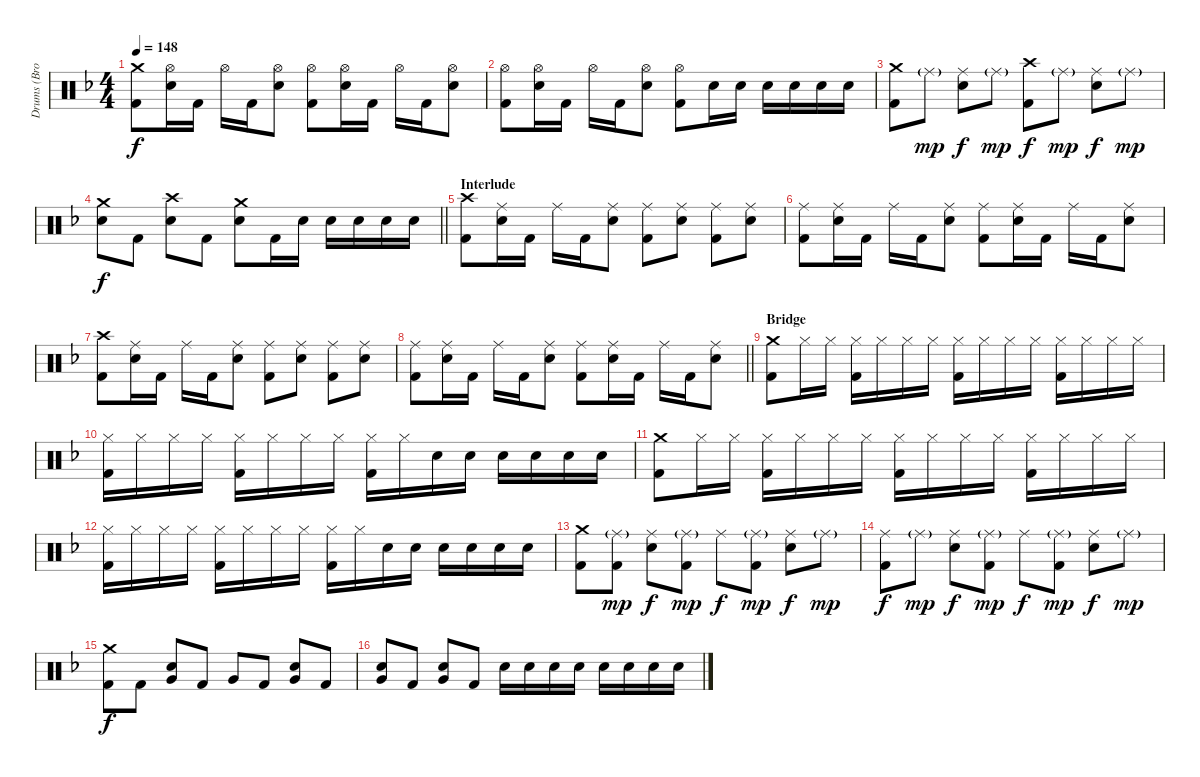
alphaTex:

\track ("Drums (Brooks Wackerman)" "Drums (Bro") {instrument percussion}
\staff {score}
\articulation defaults
\ts (4 4)
\tempo 148
\clef neutral
\ks f
("Crash medium (hit)" "Kick (hit) 2").8{dy f} ("Hi-Hat (open)" "Snare (hit) 2").16 "Kick (hit) 2".16 "Hi-Hat (open)".16 "Kick (hit) 2".16 ("Hi-Hat (open)" "Snare (hit) 2").8 ("Hi-Hat (open)" "Kick (hit) 2").8 ("Hi-Hat (open)" "Snare (hit) 2").16 "Kick (hit) 2".16 "Hi-Hat (open)".16 "Kick (hit) 2".16 ("Hi-Hat (open)" "Snare (hit) 2").8 |
("Hi-Hat (open)" "Kick (hit) 2").8 ("Hi-Hat (open)" "Snare (hit) 2").16 "Kick (hit) 2".16 "Hi-Hat (open)".16 "Kick (hit) 2".16 ("Hi-Hat (open)" "Snare (hit) 2").8 ("Hi-Hat (open)" "Kick (hit) 2").8 "Snare (hit) 2".16 "Snare (hit) 2".16 "Snare (hit) 2".16 "Snare (hit) 2".16 "Snare (hit) 2".16 "Snare (hit) 2".16 |
("Crash medium (hit)" "Kick (hit) 2").8 "Ride (middle)"{g}.8{dy mp} ("Ride (middle)" "Snare (hit) 2").8{dy f} "Ride (middle)"{g}.8{dy mp} ("Crash high (hit)" "Kick (hit) 2").8{dy f} "Ride (middle)"{g}.8{dy mp} ("Ride (middle)" "Snare (hit) 2").8{dy f} "Ride (middle)"{g}.8{dy mp} |
\barLineRight lightlight
("Crash medium (hit)" "Snare (hit) 2").8{dy f} "Kick (hit) 2".8 ("Crash high (hit)" "Snare (hit) 2").8 "Kick (hit) 2".8 ("Crash medium (hit)" "Snare (hit) 2").8 "Kick (hit) 2".16 "Snare (hit) 2".16 "Snare (hit) 2".16 "Snare (hit) 2".16 "Snare (hit) 2".16 "Snare (hit) 2".16 |
\section ("" "Interlude")
("Crash high (hit)" "Kick (hit) 2").8 ("Ride (middle)" "Snare (hit) 2").16 "Kick (hit) 2".16 "Ride (middle)".16 "Kick (hit) 2".16 ("Ride (middle)" "Snare (hit) 2").8 ("Ride (middle)" "Kick (hit) 2").8 ("Ride (middle)" "Snare (hit) 2").8 ("Ride (middle)" "Kick (hit) 2").8 ("Ride (middle)" "Snare (hit) 2").8 |
("Ride (middle)" "Kick (hit) 2").8 ("Ride (middle)" "Snare (hit) 2").16 "Kick (hit) 2".16 "Ride (middle)".16 "Kick (hit) 2".16 ("Ride (middle)" "Snare (hit) 2").8 ("Ride (middle)" "Kick (hit) 2").8 ("Ride (middle)" "Snare (hit) 2").16 "Kick (hit) 2".16 "Ride (middle)".16 "Kick (hit) 2".16 ("Ride (middle)" "Snare (hit) 2").8 |
("Crash high (hit)" "Kick (hit) 2").8 ("Ride (middle)" "Snare (hit) 2").16 "Kick (hit) 2".16 "Ride (middle)".16 "Kick (hit) 2".16 ("Ride (middle)" "Snare (hit) 2").8 ("Ride (middle)" "Kick (hit) 2").8 ("Ride (middle)" "Snare (hit) 2").8 ("Ride (middle)" "Kick (hit) 2").8 ("Ride (middle)" "Snare (hit) 2").8 |
\barLineRight lightlight
("Ride (middle)" "Kick (hit) 2").8 ("Ride (middle)" "Snare (hit) 2").16 "Kick (hit) 2".16 "Ride (middle)".16 "Kick (hit) 2".16 ("Ride (middle)" "Snare (hit) 2").8 ("Ride (middle)" "Kick (hit) 2").8 ("Ride (middle)" "Snare (hit) 2").16 "Kick (hit) 2".16 "Ride (middle)".16 "Kick (hit) 2".16 ("Ride (middle)" "Snare (hit) 2").8 |
\section ("" "Bridge")
("Crash medium (hit)" "Kick (hit) 2").8 "Hi-Hat (closed)".16 "Hi-Hat (closed)".16 ("Hi-Hat (closed)" "Kick (hit) 2").16 "Hi-Hat (closed)".16 "Hi-Hat (closed)".16 "Hi-Hat (closed)".16 ("Hi-Hat (closed)" "Kick (hit) 2").16 "Hi-Hat (closed)".16 "Hi-Hat (closed)".16 "Hi-Hat (closed)".16 ("Hi-Hat (closed)" "Kick (hit) 2").16 "Hi-Hat (closed)".16 "Hi-Hat (closed)".16 "Hi-Hat (closed)".16 |
("Hi-Hat (closed)" "Kick (hit) 2").16 "Hi-Hat (closed)".16 "Hi-Hat (closed)".16 "Hi-Hat (closed)".16 ("Hi-Hat (closed)" "Kick (hit) 2").16 "Hi-Hat (closed)".16 "Hi-Hat (closed)".16 "Hi-Hat (closed)".16 ("Hi-Hat (closed)" "Kick (hit) 2").16 "Hi-Hat (closed)".16 "Snare (hit) 2".16 "Snare (hit) 2".16 "Snare (hit) 2".16 "Snare (hit) 2".16 "Snare (hit) 2".16 "Snare (hit) 2".16 |
("Crash medium (hit)" "Kick (hit) 2").8 "Hi-Hat (closed)".16 "Hi-Hat (closed)".16 ("Hi-Hat (closed)" "Kick (hit) 2").16 "Hi-Hat (closed)".16 "Hi-Hat (closed)".16 "Hi-Hat (closed)".16 ("Hi-Hat (closed)" "Kick (hit) 2").16 "Hi-Hat (closed)".16 "Hi-Hat (closed)".16 "Hi-Hat (closed)".16 ("Hi-Hat (closed)" "Kick (hit) 2").16 "Hi-Hat (closed)".16 "Hi-Hat (closed)".16 "Hi-Hat (closed)".16 |
("Hi-Hat (closed)" "Kick (hit) 2").16 "Hi-Hat (closed)".16 "Hi-Hat (closed)".16 "Hi-Hat (closed)".16 ("Hi-Hat (closed)" "Kick (hit) 2").16 "Hi-Hat (closed)".16 "Hi-Hat (closed)".16 "Hi-Hat (closed)".16 ("Hi-Hat (closed)" "Kick (hit) 2").16 "Hi-Hat (closed)".16 "Snare (hit) 2".16 "Snare (hit) 2".16 "Snare (hit) 2".16 "Snare (hit) 2".16 "Snare (hit) 2".16 "Snare (hit) 2".16 |
("Crash medium (hit)" "Kick (hit) 2").8 ("Ride (middle)"{g} "Kick (hit) 2").8{dy mp} ("Ride (middle)" "Snare (hit) 2").8{dy f} ("Ride (middle)"{g} "Kick (hit) 2").8{dy mp} "Ride (middle)".8{dy f} ("Ride (middle)"{g} "Kick (hit) 2").8{dy mp} ("Ride (middle)" "Snare (hit) 2").8{dy f} "Ride (middle)"{g}.8{dy mp} |
("Ride (middle)" "Kick (hit) 2").8{dy f} "Ride (middle)"{g}.8{dy mp} ("Ride (middle)" "Snare (hit) 2").8{dy f} ("Ride (middle)"{g} "Kick (hit) 2").8{dy mp} "Ride (middle)".8{dy f} ("Ride (middle)"{g} "Kick (hit) 2").8{dy mp} ("Ride (middle)" "Snare (hit) 2").8{dy f} "Ride (middle)"{g}.8{dy mp} |
("Crash medium (hit)" "Kick (hit) 2").8{dy f} "Kick (hit) 2".8 ("Snare (hit) 2" "Very Low Tom (hit)").8 "Kick (hit) 2".8 "Very Low Tom (hit)".8 "Kick (hit) 2".8 ("Snare (hit) 2" "Very Low Tom (hit)").8 "Kick (hit) 2".8 |
("Snare (hit) 2" "Very Low Tom (hit)").8 "Kick (hit) 2".8 ("Snare (hit) 2" "Very Low Tom (hit)").8 "Kick (hit) 2".8 "Snare (hit) 2".16 "Snare (hit) 2".16 "Snare (hit) 2".16 "Snare (hit) 2".16 "Snare (hit) 2".16 "Snare (hit) 2".16 "Snare (hit) 2".16 "Snare (hit) 2".16
